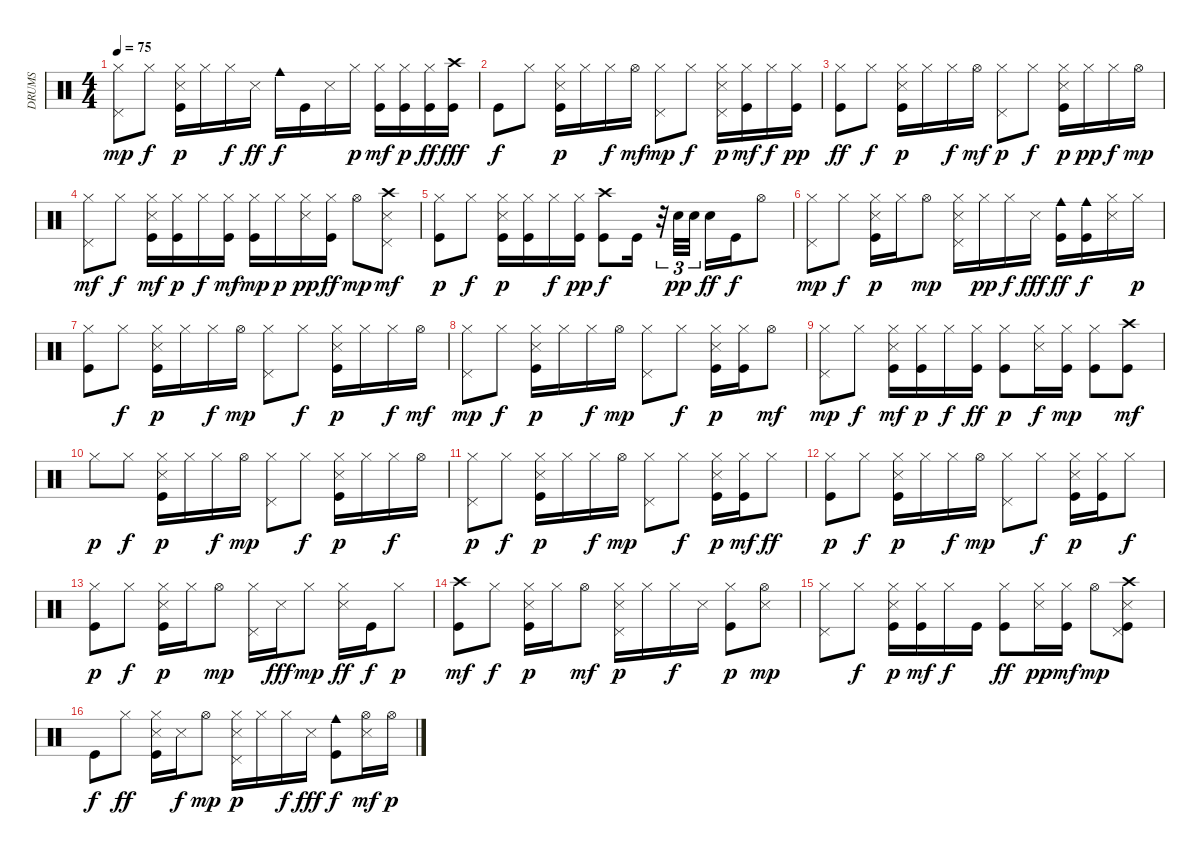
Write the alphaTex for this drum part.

\track ("DRUMS" "DRUMS") {instrument percussion}
\staff {score}
\articulation defaults
\ts (4 4)
\tempo 75
\clef neutral
\ks c
("Hi-Hat (closed)" "Pedal Hi-Hat (hit)").8{dy mp} "Hi-Hat (closed)".8{dy f} ("Hi-Hat (closed)" "Snare (side stick) 3" "Kick (hit)").16{dy p} "Hi-Hat (closed)".16 "Hi-Hat (closed)".16{dy f} "Snare (side stick) 3".16{dy ff} "Cowbell medium (hit)".16{dy f} "Kick (hit)".16 "Snare (side stick) 3".16 "Hi-Hat (closed)".16{dy p} ("Hi-Hat (closed)" "Kick (hit)").16{dy mf} ("Hi-Hat (closed)" "Kick (hit)").16{dy p} ("Hi-Hat (closed)" "Kick (hit)").16{dy ff} ("Crash high (hit)" "Kick (hit)").16{dy fff} |
"Kick (hit)".8{dy f} "Hi-Hat (closed)".8 ("Hi-Hat (closed)" "Snare (side stick) 3" "Kick (hit)").16{dy p} "Hi-Hat (closed)".16 "Hi-Hat (closed)".16{dy f} "Hi-Hat (open)".16{dy mf} ("Hi-Hat (closed)" "Pedal Hi-Hat (hit)").8{dy mp} "Hi-Hat (closed)".8{dy f} ("Hi-Hat (closed)" "Snare (side stick) 3" "Pedal Hi-Hat (hit)").16{dy p} ("Hi-Hat (closed)" "Kick (hit)").16{dy mf} "Hi-Hat (closed)".16{dy f} ("Hi-Hat (closed)" "Kick (hit)").16{dy pp} |
("Hi-Hat (closed)" "Kick (hit)").8{dy ff} "Hi-Hat (closed)".8{dy f} ("Hi-Hat (closed)" "Snare (side stick) 3" "Kick (hit)").16{dy p} "Hi-Hat (closed)".16 "Hi-Hat (closed)".16{dy f} "Hi-Hat (open)".16{dy mf} ("Hi-Hat (closed)" "Pedal Hi-Hat (hit)").8{dy p} "Hi-Hat (closed)".8{dy f} ("Hi-Hat (closed)" "Snare (side stick) 3" "Kick (hit)").16{dy p} "Hi-Hat (closed)".16{dy pp} "Hi-Hat (closed)".16{dy f} "Hi-Hat (open)".16{dy mp} |
("Hi-Hat (closed)" "Pedal Hi-Hat (hit)").8{dy mf} "Hi-Hat (closed)".8{dy f} ("Hi-Hat (closed)" "Snare (side stick) 3" "Kick (hit)").16{dy mf} ("Hi-Hat (closed)" "Kick (hit)").16{dy p} "Hi-Hat (closed)".16{dy f} ("Hi-Hat (closed)" "Kick (hit)").16{dy mf} ("Hi-Hat (closed)" "Kick (hit)").16{dy mp} "Hi-Hat (closed)".16{dy p} ("Hi-Hat (closed)" "Snare (side stick) 3").16{dy pp} ("Hi-Hat (closed)" "Kick (hit)").16{dy ff} "Hi-Hat (open)".8{dy mp} ("Crash high (hit)" "Snare (side stick) 3" "Pedal Hi-Hat (hit)").8{dy mf} |
("Hi-Hat (closed)" "Kick (hit)").8{dy p} "Hi-Hat (closed)".8{dy f} ("Hi-Hat (closed)" "Snare (side stick) 3" "Kick (hit)").16{dy p} ("Hi-Hat (closed)" "Kick (hit)").16 "Hi-Hat (closed)".16{dy f} ("Hi-Hat (closed)" "Kick (hit)").16{dy pp} ("Crash high (hit)" "Kick (hit)").8{dy f} "Kick (hit)".16 r.32{tu (3 2)} "Electric Snare (hit)".32{tu (3 2) dy pp} "Electric Snare (hit)".32{tu (3 2)} "Electric Snare (hit)".16{dy ff} "Kick (hit)".16{dy f} "Hi-Hat (open)".8 |
("Hi-Hat (closed)" "Pedal Hi-Hat (hit)").8{dy mp} "Hi-Hat (closed)".8{dy f} ("Hi-Hat (closed)" "Snare (side stick) 3" "Kick (hit)").16{dy p} "Hi-Hat (closed)".16 "Hi-Hat (open)".8{dy mp} ("Hi-Hat (closed)" "Snare (side stick) 3" "Pedal Hi-Hat (hit)").16 "Hi-Hat (closed)".16{dy pp} "Hi-Hat (closed)".16{dy f} "Snare (side stick) 3".16{dy fff} ("Cowbell medium (hit)" "Kick (hit)").16{dy ff} ("Cowbell medium (hit)" "Kick (hit)").16{dy f} ("Hi-Hat (closed)" "Snare (side stick) 3").16 "Hi-Hat (closed)".16{dy p} |
("Hi-Hat (closed)" "Kick (hit)").8 "Hi-Hat (closed)".8{dy f} ("Hi-Hat (closed)" "Snare (side stick) 3" "Kick (hit)").16{dy p} "Hi-Hat (closed)".16 "Hi-Hat (closed)".16{dy f} "Hi-Hat (open)".16{dy mp} ("Hi-Hat (closed)" "Pedal Hi-Hat (hit)").8 "Hi-Hat (closed)".8{dy f} ("Hi-Hat (closed)" "Snare (side stick) 3" "Kick (hit)").16{dy p} "Hi-Hat (closed)".16 "Hi-Hat (closed)".16{dy f} "Hi-Hat (open)".16{dy mf} |
("Hi-Hat (closed)" "Pedal Hi-Hat (hit)").8{dy mp} "Hi-Hat (closed)".8{dy f} ("Hi-Hat (closed)" "Snare (side stick) 3" "Kick (hit)").16{dy p} "Hi-Hat (closed)".16 "Hi-Hat (closed)".16{dy f} "Hi-Hat (open)".16{dy mp} ("Hi-Hat (closed)" "Pedal Hi-Hat (hit)").8 "Hi-Hat (closed)".8{dy f} ("Hi-Hat (closed)" "Snare (side stick) 3" "Kick (hit)").16{dy p} ("Hi-Hat (closed)" "Kick (hit)").16 "Hi-Hat (open)".8{dy mf} |
("Hi-Hat (closed)" "Pedal Hi-Hat (hit)").8{dy mp} "Hi-Hat (closed)".8{dy f} ("Hi-Hat (closed)" "Snare (side stick) 3" "Kick (hit)").16{dy mf} ("Hi-Hat (closed)" "Kick (hit)").16{dy p} "Hi-Hat (closed)".16{dy f} ("Hi-Hat (closed)" "Kick (hit)").16{dy ff} ("Hi-Hat (closed)" "Kick (hit)").8{dy p} ("Hi-Hat (closed)" "Snare (side stick) 3").16{dy f} ("Hi-Hat (closed)" "Kick (hit)").16{dy mp} ("Hi-Hat (closed)" "Kick (hit)").8 ("Crash high (hit)" "Kick (hit)").8{dy mf} |
"Hi-Hat (closed)".8{dy p} "Hi-Hat (closed)".8{dy f} ("Hi-Hat (closed)" "Snare (side stick) 3" "Kick (hit)").16{dy p} "Hi-Hat (closed)".16 "Hi-Hat (closed)".16{dy f} "Hi-Hat (open)".16{dy mp} ("Hi-Hat (closed)" "Pedal Hi-Hat (hit)").8 "Hi-Hat (closed)".8{dy f} ("Hi-Hat (closed)" "Snare (side stick) 3" "Kick (hit)").16{dy p} "Hi-Hat (closed)".16 "Hi-Hat (closed)".16{dy f} "Hi-Hat (open)".16 |
("Hi-Hat (closed)" "Pedal Hi-Hat (hit)").8{dy p} "Hi-Hat (closed)".8{dy f} ("Hi-Hat (closed)" "Snare (side stick) 3" "Kick (hit)").16{dy p} "Hi-Hat (closed)".16 "Hi-Hat (closed)".16{dy f} "Hi-Hat (open)".16{dy mp} ("Hi-Hat (closed)" "Pedal Hi-Hat (hit)").8 "Hi-Hat (closed)".8{dy f} ("Hi-Hat (closed)" "Snare (side stick) 3" "Kick (hit)").16{dy p} ("Hi-Hat (closed)" "Kick (hit)").16{dy mf} "Hi-Hat (closed)".8{dy ff} |
("Hi-Hat (closed)" "Kick (hit)").8{dy p} "Hi-Hat (closed)".8{dy f} ("Hi-Hat (closed)" "Snare (side stick) 3" "Kick (hit)").16{dy p} "Hi-Hat (closed)".16 "Hi-Hat (closed)".16{dy f} "Hi-Hat (open)".16{dy mp} ("Hi-Hat (closed)" "Pedal Hi-Hat (hit)").8 "Hi-Hat (closed)".8{dy f} ("Hi-Hat (closed)" "Snare (side stick) 3" "Kick (hit)").16{dy p} ("Hi-Hat (closed)" "Kick (hit)").16 "Hi-Hat (closed)".8{dy f} |
("Hi-Hat (closed)" "Kick (hit)").8{dy p} "Hi-Hat (closed)".8{dy f} ("Hi-Hat (closed)" "Snare (side stick) 3" "Kick (hit)").16{dy p} "Hi-Hat (closed)".16 "Hi-Hat (open)".8{dy mp} ("Hi-Hat (closed)" "Pedal Hi-Hat (hit)").16 "Snare (side stick) 3".16{dy fff} "Hi-Hat (closed)".8{dy mp} ("Hi-Hat (closed)" "Snare (side stick) 3").16{dy ff} "Kick (hit)".16{dy f} "Hi-Hat (closed)".8{dy p} |
("Crash high (hit)" "Kick (hit)").8{dy mf} "Hi-Hat (closed)".8{dy f} ("Hi-Hat (closed)" "Snare (side stick) 3" "Kick (hit)").16{dy p} "Hi-Hat (closed)".16 "Hi-Hat (open)".8{dy mf} ("Hi-Hat (closed)" "Snare (side stick) 3" "Pedal Hi-Hat (hit)").16{dy p} "Hi-Hat (closed)".16 "Hi-Hat (closed)".16{dy f} "Snare (side stick) 3".16 ("Hi-Hat (closed)" "Kick (hit)").8{dy p} ("Hi-Hat (open)" "Snare (side stick) 3").8{dy mp} |
("Hi-Hat (closed)" "Pedal Hi-Hat (hit)").8 "Hi-Hat (closed)".8{dy f} ("Hi-Hat (closed)" "Snare (side stick) 3" "Kick (hit)").16{dy p} ("Hi-Hat (closed)" "Kick (hit)").16{dy mf} "Hi-Hat (closed)".16{dy f} "Kick (hit)".16 ("Hi-Hat (closed)" "Kick (hit)").8{dy ff} ("Hi-Hat (closed)" "Snare (side stick) 3").16{dy pp} ("Hi-Hat (closed)" "Kick (hit)").16{dy mf} "Hi-Hat (open)".8{dy mp} ("Crash high (hit)" "Snare (side stick) 3" "Pedal Hi-Hat (hit)" "Kick (hit)").8 |
"Kick (hit)".8{dy f} "Hi-Hat (closed)".8{dy ff} ("Hi-Hat (closed)" "Snare (side stick) 3" "Kick (hit)").16 "Snare (side stick) 3".16{dy f} "Hi-Hat (open)".8{dy mp} ("Hi-Hat (closed)" "Snare (side stick) 3" "Pedal Hi-Hat (hit)").16{dy p} "Hi-Hat (closed)".16 "Hi-Hat (closed)".16{dy f} "Snare (side stick) 3".16{dy fff} ("Cowbell medium (hit)" "Kick (hit)").8{dy f} ("Hi-Hat (open)" "Snare (side stick) 3").16{dy mf} "Hi-Hat (open)".16{dy p}
